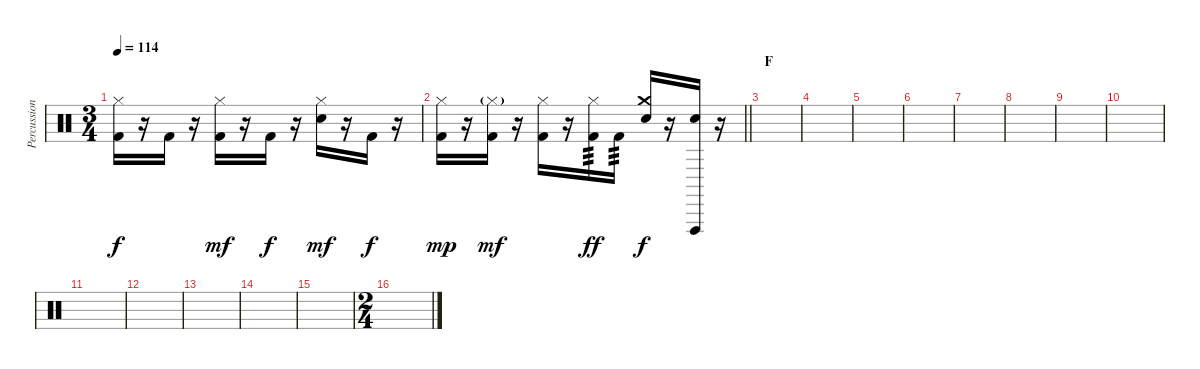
\track ("Percussion" "Percussion") {instrument percussion}
\staff {score}
\articulation defaults
\ts (3 4)
\tempo 114
\clef neutral
\ks c
("Hi-Hat (closed)" "Kick (hit) 2").16{dy f} r.16 "Kick (hit) 2".16 r.16 ("Hi-Hat (closed)" "Kick (hit) 2").16{dy mf} r.16 "Kick (hit) 2".16{dy f} r.16 ("Hi-Hat (closed)" "Snare (hit) 2").16{dy mf} r.16 "Kick (hit) 2".16{dy f} r.16 |
\barLineRight lightlight
("Hi-Hat (closed)" "Kick (hit) 2").16{dy mp} r.16 ("Hi-Hat (closed)"{g} "Kick (hit) 2").16{dy mf} r.16 ("Hi-Hat (closed)" "Kick (hit) 2").16 r.16 ("Hi-Hat (closed)" "Kick (hit) 2").16{tp 3 dy ff} "Kick (hit) 2".16{tp 3} ("Crash medium (hit)" "Snare (hit) 2").16{dy f} r.16 ("Vibraslap (hit)" "Snare (hit) 2").16 r.16 |
\section ("" "F")
|
|
|
|
|
|
|
|
|
|
|
|
|
\ts (2 4)
